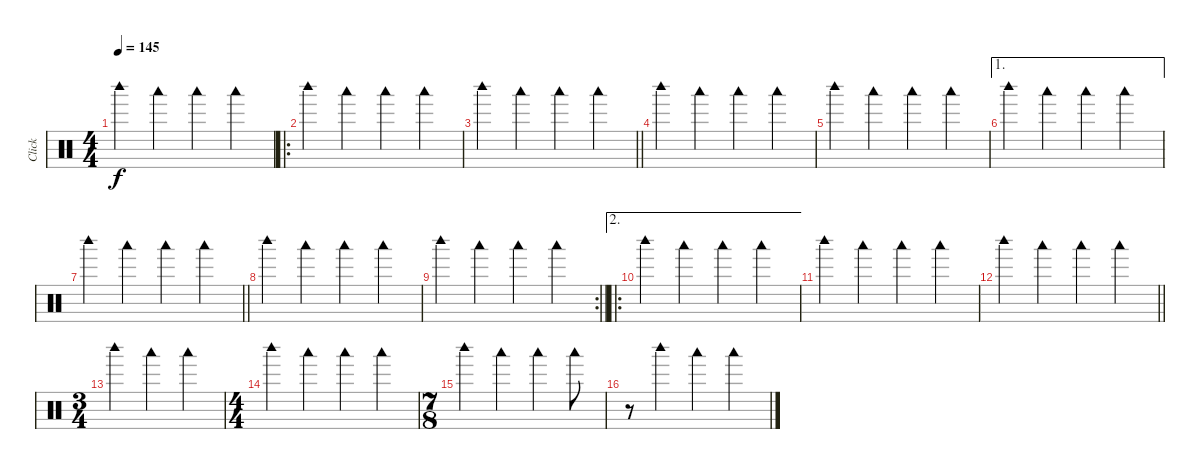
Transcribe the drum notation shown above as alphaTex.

\track ("Click" "Click") {mute instrument percussion}
\staff {score}
\articulation defaults
\ts (4 4)
\tempo 145
\clef neutral
\ks c "Woodblock high (hit)".4{dy f} "Woodblock low (hit)".4 "Woodblock low (hit)".4 "Woodblock low (hit)".4
|
\ro "Woodblock high (hit)".4 "Woodblock low (hit)".4 "Woodblock low (hit)".4 "Woodblock low (hit)".4
|
\barLineRight lightlight "Woodblock high (hit)".4 "Woodblock low (hit)".4 "Woodblock low (hit)".4 "Woodblock low (hit)".4
|
"Woodblock high (hit)".4 "Woodblock low (hit)".4 "Woodblock low (hit)".4 "Woodblock low (hit)".4 |
"Woodblock high (hit)".4 "Woodblock low (hit)".4 "Woodblock low (hit)".4 "Woodblock low (hit)".4 |
\ae 1 "Woodblock high (hit)".4 "Woodblock low (hit)".4 "Woodblock low (hit)".4 "Woodblock low (hit)".4
|
\barLineRight lightlight "Woodblock high (hit)".4 "Woodblock low (hit)".4 "Woodblock low (hit)".4 "Woodblock low (hit)".4
|
"Woodblock high (hit)".4 "Woodblock low (hit)".4 "Woodblock low (hit)".4 "Woodblock low (hit)".4 |
\rc 2
\barLineRight lightlight "Woodblock high (hit)".4 "Woodblock low (hit)".4 "Woodblock low (hit)".4 "Woodblock low (hit)".4
|
\ae 2
\ro "Woodblock high (hit)".4 "Woodblock low (hit)".4 "Woodblock low (hit)".4 "Woodblock low (hit)".4
|
"Woodblock high (hit)".4 "Woodblock low (hit)".4 "Woodblock low (hit)".4 "Woodblock low (hit)".4 |
\barLineRight lightlight "Woodblock high (hit)".4 "Woodblock low (hit)".4 "Woodblock low (hit)".4 "Woodblock low (hit)".4
|
\ts (3 4)
"Woodblock high (hit)".4 "Woodblock low (hit)".4 "Woodblock low (hit)".4 |
\ts (4 4)
"Woodblock high (hit)".4 "Woodblock low (hit)".4 "Woodblock low (hit)".4 "Woodblock low (hit)".4 |
\ts (7 8)
"Woodblock high (hit)".4 "Woodblock low (hit)".4 "Woodblock low (hit)".4 "Woodblock low (hit)".8 |
r.8 "Woodblock high (hit)".4 "Woodblock low (hit)".4 "Woodblock low (hit)".4
